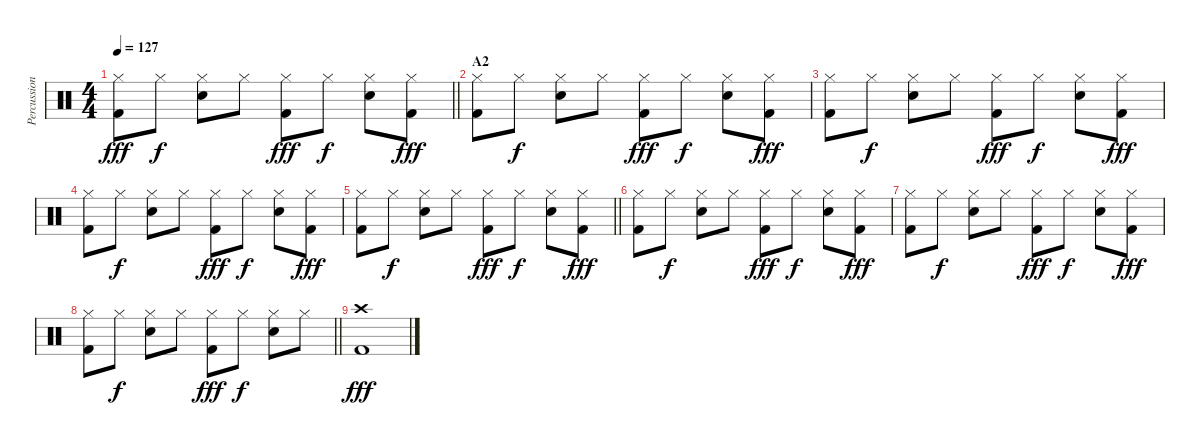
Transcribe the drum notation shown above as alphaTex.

\track ("Percussion" "Percussion") {instrument percussion}
\staff {score}
\articulation defaults
\ts (4 4)
\tempo 127
\clef neutral
\barLineRight lightlight
\ks c
("Hi-Hat (closed)" "Kick (hit) 2").8{dy fff} "Hi-Hat (closed)".8{dy f} ("Hi-Hat (closed)" "Electric Snare (hit)").8 "Hi-Hat (closed)".8 ("Hi-Hat (closed)" "Kick (hit) 2").8{dy fff} "Hi-Hat (closed)".8{dy f} ("Hi-Hat (closed)" "Electric Snare (hit)").8 ("Hi-Hat (closed)" "Kick (hit) 2").8{dy fff} |
\section ("" "A2")
("Hi-Hat (closed)" "Kick (hit) 2").8 "Hi-Hat (closed)".8{dy f} ("Hi-Hat (closed)" "Electric Snare (hit)").8 "Hi-Hat (closed)".8 ("Hi-Hat (closed)" "Kick (hit) 2").8{dy fff} "Hi-Hat (closed)".8{dy f} ("Hi-Hat (closed)" "Electric Snare (hit)").8 ("Hi-Hat (closed)" "Kick (hit) 2").8{dy fff} |
("Hi-Hat (closed)" "Kick (hit) 2").8 "Hi-Hat (closed)".8{dy f} ("Hi-Hat (closed)" "Electric Snare (hit)").8 "Hi-Hat (closed)".8 ("Hi-Hat (closed)" "Kick (hit) 2").8{dy fff} "Hi-Hat (closed)".8{dy f} ("Hi-Hat (closed)" "Electric Snare (hit)").8 ("Hi-Hat (closed)" "Kick (hit) 2").8{dy fff} |
("Hi-Hat (closed)" "Kick (hit) 2").8 "Hi-Hat (closed)".8{dy f} ("Hi-Hat (closed)" "Electric Snare (hit)").8 "Hi-Hat (closed)".8 ("Hi-Hat (closed)" "Kick (hit) 2").8{dy fff} "Hi-Hat (closed)".8{dy f} ("Hi-Hat (closed)" "Electric Snare (hit)").8 ("Hi-Hat (closed)" "Kick (hit) 2").8{dy fff} |
\barLineRight lightlight
("Hi-Hat (closed)" "Kick (hit) 2").8 "Hi-Hat (closed)".8{dy f} ("Hi-Hat (closed)" "Electric Snare (hit)").8 "Hi-Hat (closed)".8 ("Hi-Hat (closed)" "Kick (hit) 2").8{dy fff} "Hi-Hat (closed)".8{dy f} ("Hi-Hat (closed)" "Electric Snare (hit)").8 ("Hi-Hat (closed)" "Kick (hit) 2").8{dy fff} |
("Hi-Hat (closed)" "Kick (hit) 2").8 "Hi-Hat (closed)".8{dy f} ("Hi-Hat (closed)" "Electric Snare (hit)").8 "Hi-Hat (closed)".8 ("Hi-Hat (closed)" "Kick (hit) 2").8{dy fff} "Hi-Hat (closed)".8{dy f} ("Hi-Hat (closed)" "Electric Snare (hit)").8 ("Hi-Hat (closed)" "Kick (hit) 2").8{dy fff} |
("Hi-Hat (closed)" "Kick (hit) 2").8 "Hi-Hat (closed)".8{dy f} ("Hi-Hat (closed)" "Electric Snare (hit)").8 "Hi-Hat (closed)".8 ("Hi-Hat (closed)" "Kick (hit) 2").8{dy fff} "Hi-Hat (closed)".8{dy f} ("Hi-Hat (closed)" "Electric Snare (hit)").8 ("Hi-Hat (closed)" "Kick (hit) 2").8{dy fff} |
\barLineRight lightlight
("Hi-Hat (closed)" "Kick (hit) 2").8 "Hi-Hat (closed)".8{dy f} ("Hi-Hat (closed)" "Electric Snare (hit)").8 "Hi-Hat (closed)".8 ("Hi-Hat (closed)" "Kick (hit) 2").8{dy fff} "Hi-Hat (closed)".8{dy f} ("Hi-Hat (closed)" "Electric Snare (hit)").8 "Hi-Hat (closed)".8 |
\section ("" "")
("Crash high (hit)" "Kick (hit) 2").1{dy fff}
